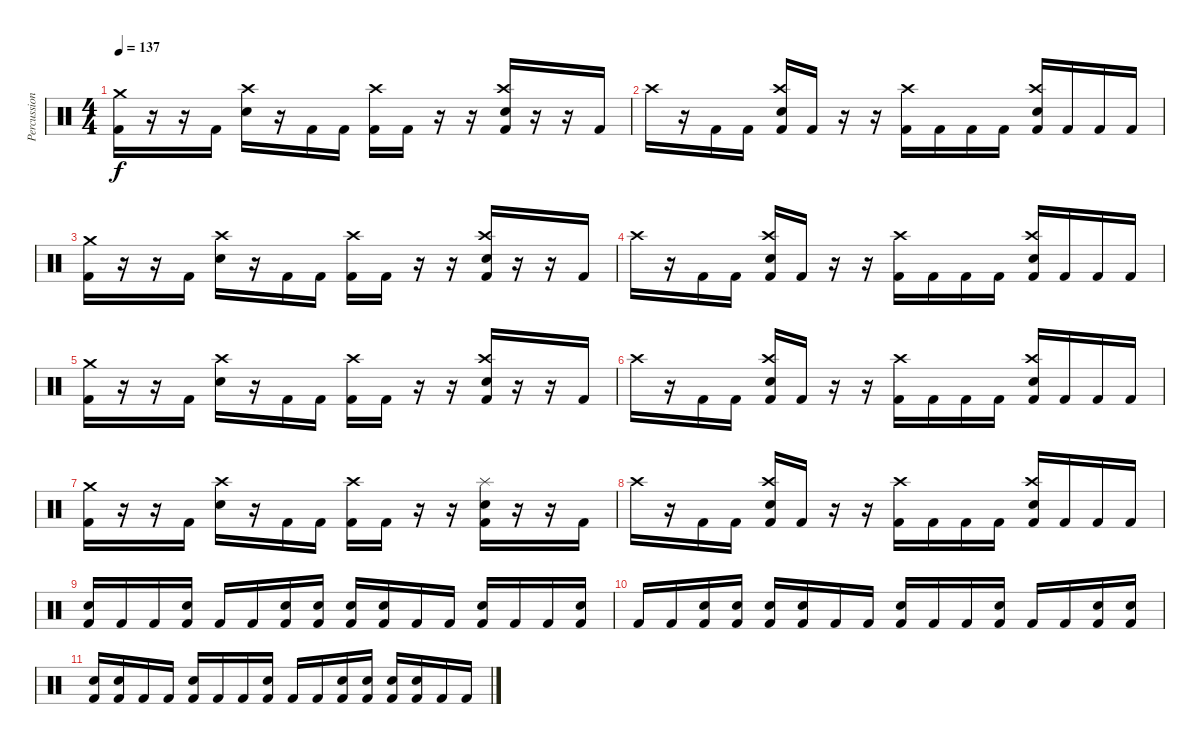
\track ("Percussion" "Percussion") {instrument percussion}
\staff {score}
\articulation defaults
\ts (4 4)
\tempo 137
\clef neutral
\ks c
("Crash medium (hit)" "Kick (hit) 2").16{dy f} r.16 r.16 "Kick (hit) 2".16 ("Crash high (hit)" "Snare (hit) 2").16 r.16 "Kick (hit) 2".16 "Kick (hit) 2".16 ("Crash high (hit)" "Kick (hit) 2").16 "Kick (hit) 2".16 r.16 r.16 ("Crash high (hit)" "Snare (hit) 2" "Kick (hit) 2").16 r.16 r.16 "Kick (hit) 2".16 |
"Crash high (hit)".16 r.16 "Kick (hit) 2".16 "Kick (hit) 2".16 ("Crash high (hit)" "Snare (hit) 2" "Kick (hit) 2").16 "Kick (hit) 2".16 r.16 r.16 ("Crash high (hit)" "Kick (hit) 2").16 "Kick (hit) 2".16 "Kick (hit) 2".16 "Kick (hit) 2".16 ("Crash high (hit)" "Snare (hit) 2" "Kick (hit) 2").16 "Kick (hit) 2".16 "Kick (hit) 2".16 "Kick (hit) 2".16 |
("Crash medium (hit)" "Kick (hit) 2").16 r.16 r.16 "Kick (hit) 2".16 ("Crash high (hit)" "Snare (hit) 2").16 r.16 "Kick (hit) 2".16 "Kick (hit) 2".16 ("Crash high (hit)" "Kick (hit) 2").16 "Kick (hit) 2".16 r.16 r.16 ("Crash high (hit)" "Snare (hit) 2" "Kick (hit) 2").16 r.16 r.16 "Kick (hit) 2".16 |
"Crash high (hit)".16 r.16 "Kick (hit) 2".16 "Kick (hit) 2".16 ("Crash high (hit)" "Snare (hit) 2" "Kick (hit) 2").16 "Kick (hit) 2".16 r.16 r.16 ("Crash high (hit)" "Kick (hit) 2").16 "Kick (hit) 2".16 "Kick (hit) 2".16 "Kick (hit) 2".16 ("Crash high (hit)" "Snare (hit) 2" "Kick (hit) 2").16 "Kick (hit) 2".16 "Kick (hit) 2".16 "Kick (hit) 2".16 |
("Crash medium (hit)" "Kick (hit) 2").16 r.16 r.16 "Kick (hit) 2".16 ("Crash high (hit)" "Snare (hit) 2").16 r.16 "Kick (hit) 2".16 "Kick (hit) 2".16 ("Crash high (hit)" "Kick (hit) 2").16 "Kick (hit) 2".16 r.16 r.16 ("Crash high (hit)" "Snare (hit) 2" "Kick (hit) 2").16 r.16 r.16 "Kick (hit) 2".16 |
"Crash high (hit)".16 r.16 "Kick (hit) 2".16 "Kick (hit) 2".16 ("Crash high (hit)" "Snare (hit) 2" "Kick (hit) 2").16 "Kick (hit) 2".16 r.16 r.16 ("Crash high (hit)" "Kick (hit) 2").16 "Kick (hit) 2".16 "Kick (hit) 2".16 "Kick (hit) 2".16 ("Crash high (hit)" "Snare (hit) 2" "Kick (hit) 2").16 "Kick (hit) 2".16 "Kick (hit) 2".16 "Kick (hit) 2".16 |
("Crash medium (hit)" "Kick (hit) 2").16 r.16 r.16 "Kick (hit) 2".16 ("Crash high (hit)" "Snare (hit) 2").16 r.16 "Kick (hit) 2".16 "Kick (hit) 2".16 ("Crash high (hit)" "Kick (hit) 2").16 "Kick (hit) 2".16 r.16 r.16 ("Splash (hit)" "Snare (hit) 2" "Kick (hit) 2").16 r.16 r.16 "Kick (hit) 2".16 |
"Crash high (hit)".16 r.16 "Kick (hit) 2".16 "Kick (hit) 2".16 ("Crash high (hit)" "Snare (hit) 2" "Kick (hit) 2").16 "Kick (hit) 2".16 r.16 r.16 ("Crash high (hit)" "Kick (hit) 2").16 "Kick (hit) 2".16 "Kick (hit) 2".16 "Kick (hit) 2".16 ("Crash high (hit)" "Snare (hit) 2" "Kick (hit) 2").16 "Kick (hit) 2".16 "Kick (hit) 2".16 "Kick (hit) 2".16 |
("Snare (hit) 2" "Kick (hit) 2").16 "Kick (hit) 2".16 "Kick (hit) 2".16 ("Snare (hit) 2" "Kick (hit) 2").16 "Kick (hit) 2".16 "Kick (hit) 2".16 ("Snare (hit) 2" "Kick (hit) 2").16 ("Snare (hit) 2" "Kick (hit) 2").16 ("Snare (hit) 2" "Kick (hit) 2").16 ("Snare (hit) 2" "Kick (hit) 2").16 "Kick (hit) 2".16 "Kick (hit) 2".16 ("Snare (hit) 2" "Kick (hit) 2").16 "Kick (hit) 2".16 "Kick (hit) 2".16 ("Snare (hit) 2" "Kick (hit) 2").16 |
"Kick (hit) 2".16 "Kick (hit) 2".16 ("Snare (hit) 2" "Kick (hit) 2").16 ("Snare (hit) 2" "Kick (hit) 2").16 ("Snare (hit) 2" "Kick (hit) 2").16 ("Snare (hit) 2" "Kick (hit) 2").16 "Kick (hit) 2".16 "Kick (hit) 2".16 ("Snare (hit) 2" "Kick (hit) 2").16 "Kick (hit) 2".16 "Kick (hit) 2".16 ("Snare (hit) 2" "Kick (hit) 2").16 "Kick (hit) 2".16 "Kick (hit) 2".16 ("Snare (hit) 2" "Kick (hit) 2").16 ("Snare (hit) 2" "Kick (hit) 2").16 |
("Snare (hit) 2" "Kick (hit) 2").16 ("Snare (hit) 2" "Kick (hit) 2").16 "Kick (hit) 2".16 "Kick (hit) 2".16 ("Snare (hit) 2" "Kick (hit) 2").16 "Kick (hit) 2".16 "Kick (hit) 2".16 ("Snare (hit) 2" "Kick (hit) 2").16 "Kick (hit) 2".16 "Kick (hit) 2".16 ("Snare (hit) 2" "Kick (hit) 2").16 ("Snare (hit) 2" "Kick (hit) 2").16 ("Snare (hit) 2" "Kick (hit) 2").16 ("Snare (hit) 2" "Kick (hit) 2").16 "Kick (hit) 2".16 "Kick (hit) 2".16
